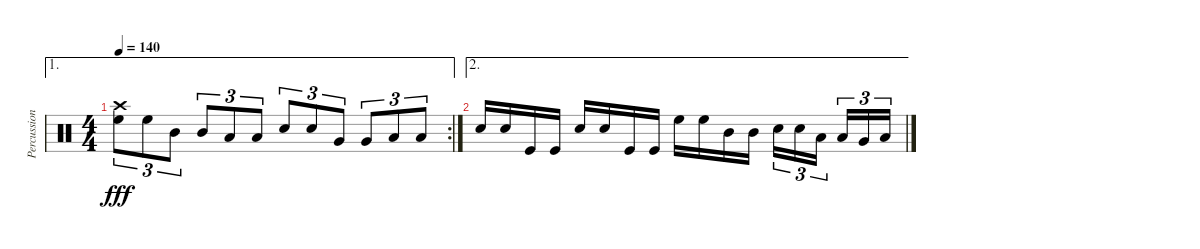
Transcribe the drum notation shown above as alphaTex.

\track ("Percussion" "Percussion") {instrument percussion}
\staff {score}
\articulation defaults
\ae 1
\rc 2
\ts (4 4)
\tempo 140
\clef neutral
\ks c
("Crash high (hit)" "High Floor Tom (hit)").8{tu (3 2) dy fff} "High Floor Tom (hit)".8{tu (3 2)} "Mid Tom (hit)".8{tu (3 2)} "Mid Tom (hit)".8{tu (3 2)} "Low Tom (hit)".8{tu (3 2)} "Low Tom (hit)".8{tu (3 2)} "Snare (hit) 2".8{tu (3 2)} "Snare (hit) 2".8{tu (3 2)} "Very Low Tom (hit)".8{tu (3 2)} "Very Low Tom (hit)".8{tu (3 2)} "Low Floor Tom (hit)".8{tu (3 2)} "Low Floor Tom (hit)".8{tu (3 2)} |
\ae 2 "Snare (hit) 2".16 "Snare (hit) 2".16 "Kick (hit)".16 "Kick (hit)".16 "Snare (hit) 2".16 "Snare (hit) 2".16 "Kick (hit)".16 "Kick (hit)".16 "High Floor Tom (hit)".16 "High Floor Tom (hit)".16 "Mid Tom (hit)".16 "Mid Tom (hit)".16 "Snare (hit) 2".16{tu (3 2)} "Snare (hit) 2".16{tu (3 2)} "Low Tom (hit)".16{tu (3 2) beam splitsecondary} "Low Tom (hit)".16{tu (3 2)} "Very Low Tom (hit)".16{tu (3 2)} "Low Floor Tom (hit)".16{tu (3 2)}
